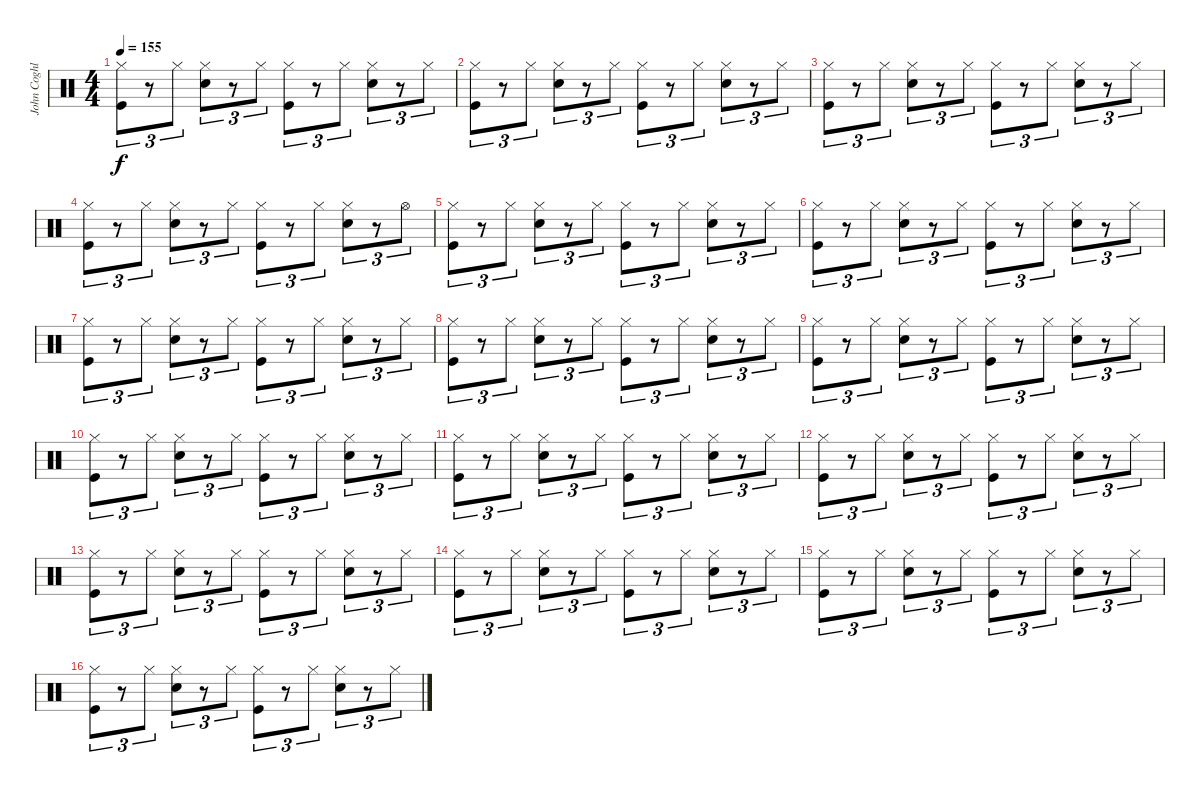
\track ("John Coghlan" "John Coghl") {instrument percussion}
\staff {score}
\articulation defaults
\ts (4 4)
\tempo 155
\clef neutral
\ks c
("Hi-Hat (closed)" "Kick (hit)").8{tu (3 2) dy f} r.8{tu (3 2)} "Hi-Hat (closed)".8{tu (3 2)} ("Electric Snare (hit)" "Hi-Hat (closed)").8{tu (3 2)} r.8{tu (3 2)} "Hi-Hat (closed)".8{tu (3 2)} ("Hi-Hat (closed)" "Kick (hit)").8{tu (3 2)} r.8{tu (3 2)} "Hi-Hat (closed)".8{tu (3 2)} ("Electric Snare (hit)" "Hi-Hat (closed)").8{tu (3 2)} r.8{tu (3 2)} "Hi-Hat (closed)".8{tu (3 2)} |
("Hi-Hat (closed)" "Kick (hit)").8{tu (3 2)} r.8{tu (3 2)} "Hi-Hat (closed)".8{tu (3 2)} ("Electric Snare (hit)" "Hi-Hat (closed)").8{tu (3 2)} r.8{tu (3 2)} "Hi-Hat (closed)".8{tu (3 2)} ("Hi-Hat (closed)" "Kick (hit)").8{tu (3 2)} r.8{tu (3 2)} "Hi-Hat (closed)".8{tu (3 2)} ("Electric Snare (hit)" "Hi-Hat (closed)").8{tu (3 2)} r.8{tu (3 2)} "Hi-Hat (closed)".8{tu (3 2)} |
("Hi-Hat (closed)" "Kick (hit)").8{tu (3 2)} r.8{tu (3 2)} "Hi-Hat (closed)".8{tu (3 2)} ("Electric Snare (hit)" "Hi-Hat (closed)").8{tu (3 2)} r.8{tu (3 2)} "Hi-Hat (closed)".8{tu (3 2)} ("Hi-Hat (closed)" "Kick (hit)").8{tu (3 2)} r.8{tu (3 2)} "Hi-Hat (closed)".8{tu (3 2)} ("Electric Snare (hit)" "Hi-Hat (closed)").8{tu (3 2)} r.8{tu (3 2)} "Hi-Hat (closed)".8{tu (3 2)} |
("Hi-Hat (closed)" "Kick (hit)").8{tu (3 2)} r.8{tu (3 2)} "Hi-Hat (closed)".8{tu (3 2)} ("Electric Snare (hit)" "Hi-Hat (closed)").8{tu (3 2)} r.8{tu (3 2)} "Hi-Hat (closed)".8{tu (3 2)} ("Hi-Hat (closed)" "Kick (hit)").8{tu (3 2)} r.8{tu (3 2)} "Hi-Hat (closed)".8{tu (3 2)} ("Electric Snare (hit)" "Hi-Hat (closed)").8{tu (3 2)} r.8{tu (3 2)} "Hi-Hat (open)".8{tu (3 2)} |
("Hi-Hat (closed)" "Kick (hit)").8{tu (3 2)} r.8{tu (3 2)} "Hi-Hat (closed)".8{tu (3 2)} ("Electric Snare (hit)" "Hi-Hat (closed)").8{tu (3 2)} r.8{tu (3 2)} "Hi-Hat (closed)".8{tu (3 2)} ("Hi-Hat (closed)" "Kick (hit)").8{tu (3 2)} r.8{tu (3 2)} "Hi-Hat (closed)".8{tu (3 2)} ("Electric Snare (hit)" "Hi-Hat (closed)").8{tu (3 2)} r.8{tu (3 2)} "Hi-Hat (closed)".8{tu (3 2)} |
("Hi-Hat (closed)" "Kick (hit)").8{tu (3 2)} r.8{tu (3 2)} "Hi-Hat (closed)".8{tu (3 2)} ("Electric Snare (hit)" "Hi-Hat (closed)").8{tu (3 2)} r.8{tu (3 2)} "Hi-Hat (closed)".8{tu (3 2)} ("Hi-Hat (closed)" "Kick (hit)").8{tu (3 2)} r.8{tu (3 2)} "Hi-Hat (closed)".8{tu (3 2)} ("Electric Snare (hit)" "Hi-Hat (closed)").8{tu (3 2)} r.8{tu (3 2)} "Hi-Hat (closed)".8{tu (3 2)} |
("Hi-Hat (closed)" "Kick (hit)").8{tu (3 2)} r.8{tu (3 2)} "Hi-Hat (closed)".8{tu (3 2)} ("Electric Snare (hit)" "Hi-Hat (closed)").8{tu (3 2)} r.8{tu (3 2)} "Hi-Hat (closed)".8{tu (3 2)} ("Hi-Hat (closed)" "Kick (hit)").8{tu (3 2)} r.8{tu (3 2)} "Hi-Hat (closed)".8{tu (3 2)} ("Electric Snare (hit)" "Hi-Hat (closed)").8{tu (3 2)} r.8{tu (3 2)} "Hi-Hat (closed)".8{tu (3 2)} |
("Hi-Hat (closed)" "Kick (hit)").8{tu (3 2)} r.8{tu (3 2)} "Hi-Hat (closed)".8{tu (3 2)} ("Electric Snare (hit)" "Hi-Hat (closed)").8{tu (3 2)} r.8{tu (3 2)} "Hi-Hat (closed)".8{tu (3 2)} ("Hi-Hat (closed)" "Kick (hit)").8{tu (3 2)} r.8{tu (3 2)} "Hi-Hat (closed)".8{tu (3 2)} ("Electric Snare (hit)" "Hi-Hat (closed)").8{tu (3 2)} r.8{tu (3 2)} "Hi-Hat (closed)".8{tu (3 2)} |
("Hi-Hat (closed)" "Kick (hit)").8{tu (3 2)} r.8{tu (3 2)} "Hi-Hat (closed)".8{tu (3 2)} ("Electric Snare (hit)" "Hi-Hat (closed)").8{tu (3 2)} r.8{tu (3 2)} "Hi-Hat (closed)".8{tu (3 2)} ("Hi-Hat (closed)" "Kick (hit)").8{tu (3 2)} r.8{tu (3 2)} "Hi-Hat (closed)".8{tu (3 2)} ("Electric Snare (hit)" "Hi-Hat (closed)").8{tu (3 2)} r.8{tu (3 2)} "Hi-Hat (closed)".8{tu (3 2)} |
("Hi-Hat (closed)" "Kick (hit)").8{tu (3 2)} r.8{tu (3 2)} "Hi-Hat (closed)".8{tu (3 2)} ("Electric Snare (hit)" "Hi-Hat (closed)").8{tu (3 2)} r.8{tu (3 2)} "Hi-Hat (closed)".8{tu (3 2)} ("Hi-Hat (closed)" "Kick (hit)").8{tu (3 2)} r.8{tu (3 2)} "Hi-Hat (closed)".8{tu (3 2)} ("Electric Snare (hit)" "Hi-Hat (closed)").8{tu (3 2)} r.8{tu (3 2)} "Hi-Hat (closed)".8{tu (3 2)} |
("Hi-Hat (closed)" "Kick (hit)").8{tu (3 2)} r.8{tu (3 2)} "Hi-Hat (closed)".8{tu (3 2)} ("Electric Snare (hit)" "Hi-Hat (closed)").8{tu (3 2)} r.8{tu (3 2)} "Hi-Hat (closed)".8{tu (3 2)} ("Hi-Hat (closed)" "Kick (hit)").8{tu (3 2)} r.8{tu (3 2)} "Hi-Hat (closed)".8{tu (3 2)} ("Electric Snare (hit)" "Hi-Hat (closed)").8{tu (3 2)} r.8{tu (3 2)} "Hi-Hat (closed)".8{tu (3 2)} |
("Hi-Hat (closed)" "Kick (hit)").8{tu (3 2)} r.8{tu (3 2)} "Hi-Hat (closed)".8{tu (3 2)} ("Electric Snare (hit)" "Hi-Hat (closed)").8{tu (3 2)} r.8{tu (3 2)} "Hi-Hat (closed)".8{tu (3 2)} ("Hi-Hat (closed)" "Kick (hit)").8{tu (3 2)} r.8{tu (3 2)} "Hi-Hat (closed)".8{tu (3 2)} ("Electric Snare (hit)" "Hi-Hat (closed)").8{tu (3 2)} r.8{tu (3 2)} "Hi-Hat (closed)".8{tu (3 2)} |
("Hi-Hat (closed)" "Kick (hit)").8{tu (3 2)} r.8{tu (3 2)} "Hi-Hat (closed)".8{tu (3 2)} ("Electric Snare (hit)" "Hi-Hat (closed)").8{tu (3 2)} r.8{tu (3 2)} "Hi-Hat (closed)".8{tu (3 2)} ("Hi-Hat (closed)" "Kick (hit)").8{tu (3 2)} r.8{tu (3 2)} "Hi-Hat (closed)".8{tu (3 2)} ("Electric Snare (hit)" "Hi-Hat (closed)").8{tu (3 2)} r.8{tu (3 2)} "Hi-Hat (closed)".8{tu (3 2)} |
("Hi-Hat (closed)" "Kick (hit)").8{tu (3 2)} r.8{tu (3 2)} "Hi-Hat (closed)".8{tu (3 2)} ("Electric Snare (hit)" "Hi-Hat (closed)").8{tu (3 2)} r.8{tu (3 2)} "Hi-Hat (closed)".8{tu (3 2)} ("Hi-Hat (closed)" "Kick (hit)").8{tu (3 2)} r.8{tu (3 2)} "Hi-Hat (closed)".8{tu (3 2)} ("Electric Snare (hit)" "Hi-Hat (closed)").8{tu (3 2)} r.8{tu (3 2)} "Hi-Hat (closed)".8{tu (3 2)} |
("Hi-Hat (closed)" "Kick (hit)").8{tu (3 2)} r.8{tu (3 2)} "Hi-Hat (closed)".8{tu (3 2)} ("Electric Snare (hit)" "Hi-Hat (closed)").8{tu (3 2)} r.8{tu (3 2)} "Hi-Hat (closed)".8{tu (3 2)} ("Hi-Hat (closed)" "Kick (hit)").8{tu (3 2)} r.8{tu (3 2)} "Hi-Hat (closed)".8{tu (3 2)} ("Electric Snare (hit)" "Hi-Hat (closed)").8{tu (3 2)} r.8{tu (3 2)} "Hi-Hat (closed)".8{tu (3 2)} |
("Hi-Hat (closed)" "Kick (hit)").8{tu (3 2)} r.8{tu (3 2)} "Hi-Hat (closed)".8{tu (3 2)} ("Electric Snare (hit)" "Hi-Hat (closed)").8{tu (3 2)} r.8{tu (3 2)} "Hi-Hat (closed)".8{tu (3 2)} ("Hi-Hat (closed)" "Kick (hit)").8{tu (3 2)} r.8{tu (3 2)} "Hi-Hat (closed)".8{tu (3 2)} ("Electric Snare (hit)" "Hi-Hat (closed)").8{tu (3 2)} r.8{tu (3 2)} "Hi-Hat (closed)".8{tu (3 2)}
